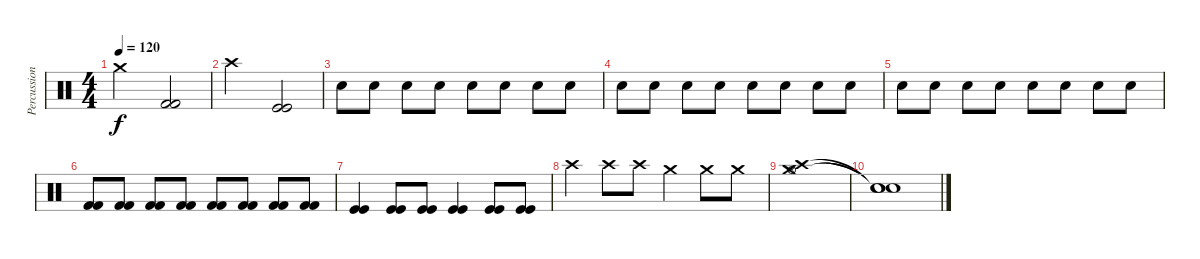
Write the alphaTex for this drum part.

\track ("Percussions" "Percussion") {instrument percussion}
\staff {score}
\articulation defaults
\ts (4 4)
\tempo 120
\clef neutral
\ks c "Crash medium (hit)".2{dy f}
("Kick (hit) 2" "Kick (hit) 2").2 |
"Crash high (hit)".2 ("Kick (hit)" "Kick (hit)").2 |
"Electric Snare (hit)".8 "Electric Snare (hit)".8 "Electric Snare (hit)".8 "Electric Snare (hit)".8 "Electric Snare (hit)".8 "Electric Snare (hit)".8 "Electric Snare (hit)".8 "Electric Snare (hit)".8 |
"Snare (hit) 2".8 "Snare (hit) 2".8 "Snare (hit) 2".8 "Snare (hit) 2".8 "Snare (hit) 2".8 "Snare (hit) 2".8 "Snare (hit) 2".8 "Snare (hit) 2".8 |
"Electric Snare (hit)".8 "Electric Snare (hit)".8 "Electric Snare (hit)".8 "Electric Snare (hit)".8 "Electric Snare (hit)".8 "Electric Snare (hit)".8 "Electric Snare (hit)".8 "Electric Snare (hit)".8 |
("Kick (hit) 2" "Kick (hit) 2").8 ("Kick (hit) 2" "Kick (hit) 2").8 ("Kick (hit) 2" "Kick (hit) 2").8 ("Kick (hit) 2" "Kick (hit) 2").8 ("Kick (hit) 2" "Kick (hit) 2").8 ("Kick (hit) 2" "Kick (hit) 2").8 ("Kick (hit) 2" "Kick (hit) 2").8 ("Kick (hit) 2" "Kick (hit) 2").8 |
("Kick (hit)" "Kick (hit)").4 ("Kick (hit)" "Kick (hit)").8 ("Kick (hit)" "Kick (hit)").8 ("Kick (hit)" "Kick (hit)").4 ("Kick (hit)" "Kick (hit)").8 ("Kick (hit)" "Kick (hit)").8 |
"Crash high (hit)".4 "Crash high (hit)".8 "Crash high (hit)".8 "Crash medium (hit)".4 "Crash medium (hit)".8 "Crash medium (hit)".8 |
("Crash medium (hit)" "Crash high (hit)" "Hi-Hat (open)").1 |
("Snare (hit)"{t} "Snare (hit)"{t} "Snare (hit)"{t}).1
